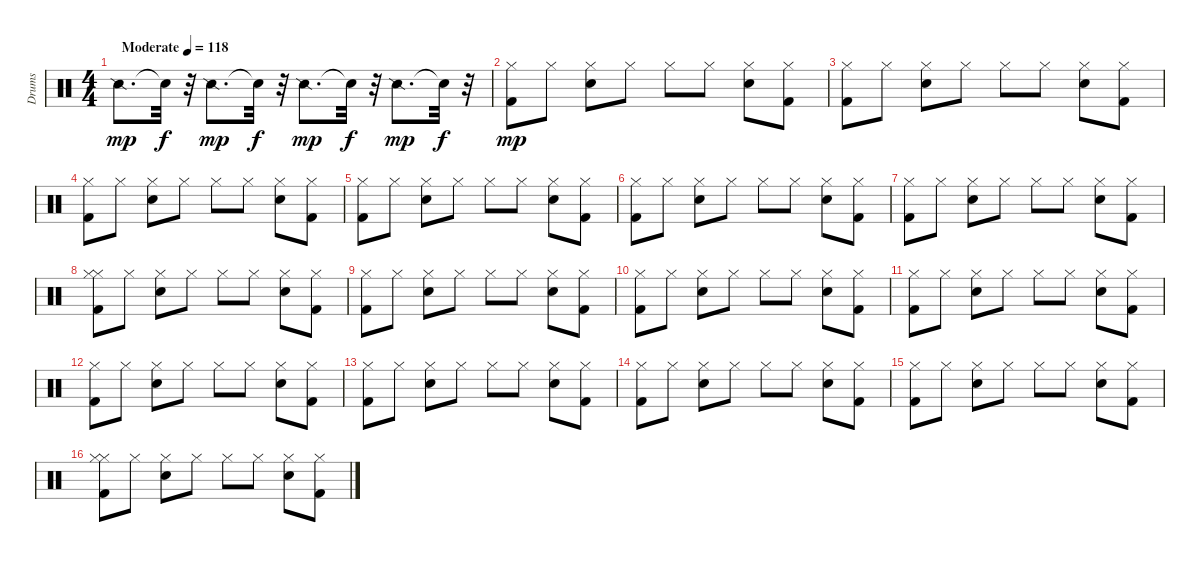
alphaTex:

\track ("Drums" "Drums") {instrument percussion}
\staff {score}
\articulation defaults
\ts (4 4)
\tempo (118 "Moderate")
\clef neutral
\ks c "Snare (side stick) 2".8{d dy mp} "Snare (hit)"{t}.32{dy f}
r.32 "Snare (side stick) 2".8{d dy mp} "Snare (hit)"{t}.32{dy f} r.32 "Snare (side stick) 2".8{d dy mp} "Snare (hit)"{t}.32{dy f} r.32 "Snare (side stick) 2".8{d dy mp} "Snare (hit)"{t}.32{dy f} r.32 |
("Hi-Hat (closed)" "Kick (hit) 2").8{dy mp} "Hi-Hat (closed)".8 ("Hi-Hat (closed)" "Snare (hit) 2").8 "Hi-Hat (closed)".8 "Hi-Hat (closed)".8 "Hi-Hat (closed)".8 ("Hi-Hat (closed)" "Snare (hit) 2").8 ("Hi-Hat (closed)" "Kick (hit) 2").8 |
("Hi-Hat (closed)" "Kick (hit) 2").8 "Hi-Hat (closed)".8 ("Hi-Hat (closed)" "Snare (hit) 2").8 "Hi-Hat (closed)".8 "Hi-Hat (closed)".8 "Hi-Hat (closed)".8 ("Hi-Hat (closed)" "Snare (hit) 2").8 ("Hi-Hat (closed)" "Kick (hit) 2").8 |
("Hi-Hat (closed)" "Kick (hit) 2").8 "Hi-Hat (closed)".8 ("Hi-Hat (closed)" "Snare (hit) 2").8 "Hi-Hat (closed)".8 "Hi-Hat (closed)".8 "Hi-Hat (closed)".8 ("Hi-Hat (closed)" "Snare (hit) 2").8 ("Hi-Hat (closed)" "Kick (hit) 2").8 |
("Hi-Hat (closed)" "Kick (hit) 2").8 "Hi-Hat (closed)".8 ("Hi-Hat (closed)" "Snare (hit) 2").8 "Hi-Hat (closed)".8 "Hi-Hat (closed)".8 "Hi-Hat (closed)".8 ("Hi-Hat (closed)" "Snare (hit) 2").8 ("Hi-Hat (closed)" "Kick (hit) 2").8 |
("Hi-Hat (closed)" "Kick (hit) 2").8 "Hi-Hat (closed)".8 ("Hi-Hat (closed)" "Snare (hit) 2").8 "Hi-Hat (closed)".8 "Hi-Hat (closed)".8 "Hi-Hat (closed)".8 ("Hi-Hat (closed)" "Snare (hit) 2").8 ("Hi-Hat (closed)" "Kick (hit) 2").8 |
("Hi-Hat (closed)" "Kick (hit) 2").8 "Hi-Hat (closed)".8 ("Hi-Hat (closed)" "Snare (hit) 2").8 "Hi-Hat (closed)".8 "Hi-Hat (closed)".8 "Hi-Hat (closed)".8 ("Hi-Hat (closed)" "Snare (hit) 2").8 ("Hi-Hat (closed)" "Kick (hit) 2").8 |
("Hi-Hat (closed)" "Hi-Hat (closed)" "Kick (hit) 2").8 "Hi-Hat (closed)".8 ("Hi-Hat (closed)" "Snare (hit) 2").8 "Hi-Hat (closed)".8 "Hi-Hat (closed)".8 "Hi-Hat (closed)".8 ("Hi-Hat (closed)" "Snare (hit) 2").8 ("Hi-Hat (closed)" "Kick (hit) 2").8 |
("Hi-Hat (closed)" "Kick (hit) 2").8 "Hi-Hat (closed)".8 ("Hi-Hat (closed)" "Snare (hit) 2").8 "Hi-Hat (closed)".8 "Hi-Hat (closed)".8 "Hi-Hat (closed)".8 ("Hi-Hat (closed)" "Snare (hit) 2").8 ("Hi-Hat (closed)" "Kick (hit) 2").8 |
("Hi-Hat (closed)" "Kick (hit) 2").8 "Hi-Hat (closed)".8 ("Hi-Hat (closed)" "Snare (hit) 2").8 "Hi-Hat (closed)".8 "Hi-Hat (closed)".8 "Hi-Hat (closed)".8 ("Hi-Hat (closed)" "Snare (hit) 2").8 ("Hi-Hat (closed)" "Kick (hit) 2").8 |
("Hi-Hat (closed)" "Kick (hit) 2").8 "Hi-Hat (closed)".8 ("Hi-Hat (closed)" "Snare (hit) 2").8 "Hi-Hat (closed)".8 "Hi-Hat (closed)".8 "Hi-Hat (closed)".8 ("Hi-Hat (closed)" "Snare (hit) 2").8 ("Hi-Hat (closed)" "Kick (hit) 2").8 |
("Hi-Hat (closed)" "Kick (hit) 2").8 "Hi-Hat (closed)".8 ("Hi-Hat (closed)" "Snare (hit) 2").8 "Hi-Hat (closed)".8 "Hi-Hat (closed)".8 "Hi-Hat (closed)".8 ("Hi-Hat (closed)" "Snare (hit) 2").8 ("Hi-Hat (closed)" "Kick (hit) 2").8 |
("Hi-Hat (closed)" "Kick (hit) 2").8 "Hi-Hat (closed)".8 ("Hi-Hat (closed)" "Snare (hit) 2").8 "Hi-Hat (closed)".8 "Hi-Hat (closed)".8 "Hi-Hat (closed)".8 ("Hi-Hat (closed)" "Snare (hit) 2").8 ("Hi-Hat (closed)" "Kick (hit) 2").8 |
("Hi-Hat (closed)" "Kick (hit) 2").8 "Hi-Hat (closed)".8 ("Hi-Hat (closed)" "Snare (hit) 2").8 "Hi-Hat (closed)".8 "Hi-Hat (closed)".8 "Hi-Hat (closed)".8 ("Hi-Hat (closed)" "Snare (hit) 2").8 ("Hi-Hat (closed)" "Kick (hit) 2").8 |
("Hi-Hat (closed)" "Kick (hit) 2").8 "Hi-Hat (closed)".8 ("Hi-Hat (closed)" "Snare (hit) 2").8 "Hi-Hat (closed)".8 "Hi-Hat (closed)".8 "Hi-Hat (closed)".8 ("Hi-Hat (closed)" "Snare (hit) 2").8 ("Hi-Hat (closed)" "Kick (hit) 2").8 |
("Hi-Hat (closed)" "Hi-Hat (closed)" "Kick (hit) 2").8 "Hi-Hat (closed)".8 ("Hi-Hat (closed)" "Snare (hit) 2").8 "Hi-Hat (closed)".8 "Hi-Hat (closed)".8 "Hi-Hat (closed)".8 ("Hi-Hat (closed)" "Snare (hit) 2").8 ("Hi-Hat (closed)" "Kick (hit) 2").8
